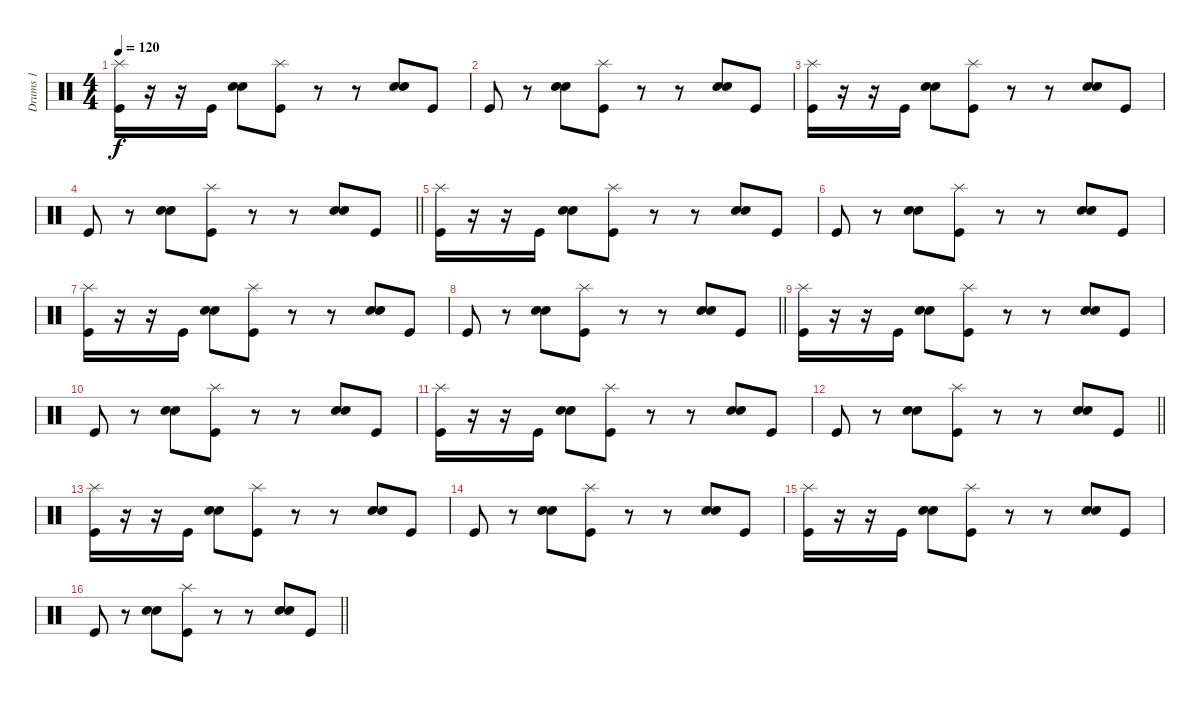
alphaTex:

\track ("Drums 1" "Drums 1") {instrument percussion}
\staff {score}
\articulation defaults
\ts (4 4)
\tempo 120
\clef neutral
\ks c
("Splash (hit)" "Kick (hit)").16{dy f} r.16 r.16 "Kick (hit)".16 ("Hand Clap (hit)" "Electric Snare (hit)").8 ("Splash (hit)" "Kick (hit)").8 r.8 r.8 ("Hand Clap (hit)" "Electric Snare (hit)").8 "Kick (hit)".8 |
"Kick (hit)".8 r.8 ("Hand Clap (hit)" "Electric Snare (hit)").8 ("Splash (hit)" "Kick (hit)").8 r.8 r.8 ("Hand Clap (hit)" "Electric Snare (hit)").8 "Kick (hit)".8 |
("Splash (hit)" "Kick (hit)").16 r.16 r.16 "Kick (hit)".16 ("Hand Clap (hit)" "Electric Snare (hit)").8 ("Splash (hit)" "Kick (hit)").8 r.8 r.8 ("Hand Clap (hit)" "Electric Snare (hit)").8 "Kick (hit)".8 |
\barLineRight lightlight "Kick (hit)".8
r.8 ("Hand Clap (hit)" "Electric Snare (hit)").8 ("Splash (hit)" "Kick (hit)").8 r.8 r.8 ("Hand Clap (hit)" "Electric Snare (hit)").8 "Kick (hit)".8 |
("Splash (hit)" "Kick (hit)").16 r.16 r.16 "Kick (hit)".16 ("Hand Clap (hit)" "Electric Snare (hit)").8 ("Splash (hit)" "Kick (hit)").8 r.8 r.8 ("Hand Clap (hit)" "Electric Snare (hit)").8 "Kick (hit)".8 |
"Kick (hit)".8 r.8 ("Hand Clap (hit)" "Electric Snare (hit)").8 ("Splash (hit)" "Kick (hit)").8 r.8 r.8 ("Hand Clap (hit)" "Electric Snare (hit)").8 "Kick (hit)".8 |
("Splash (hit)" "Kick (hit)").16 r.16 r.16 "Kick (hit)".16 ("Hand Clap (hit)" "Electric Snare (hit)").8 ("Splash (hit)" "Kick (hit)").8 r.8 r.8 ("Hand Clap (hit)" "Electric Snare (hit)").8 "Kick (hit)".8 |
\barLineRight lightlight "Kick (hit)".8
r.8 ("Hand Clap (hit)" "Electric Snare (hit)").8 ("Splash (hit)" "Kick (hit)").8 r.8 r.8 ("Hand Clap (hit)" "Electric Snare (hit)").8 "Kick (hit)".8 |
("Splash (hit)" "Kick (hit)").16 r.16 r.16 "Kick (hit)".16 ("Hand Clap (hit)" "Electric Snare (hit)").8 ("Splash (hit)" "Kick (hit)").8 r.8 r.8 ("Hand Clap (hit)" "Electric Snare (hit)").8 "Kick (hit)".8 |
"Kick (hit)".8 r.8 ("Hand Clap (hit)" "Electric Snare (hit)").8 ("Splash (hit)" "Kick (hit)").8 r.8 r.8 ("Hand Clap (hit)" "Electric Snare (hit)").8 "Kick (hit)".8 |
("Splash (hit)" "Kick (hit)").16 r.16 r.16 "Kick (hit)".16 ("Hand Clap (hit)" "Electric Snare (hit)").8 ("Splash (hit)" "Kick (hit)").8 r.8 r.8 ("Hand Clap (hit)" "Electric Snare (hit)").8 "Kick (hit)".8 |
\barLineRight lightlight "Kick (hit)".8
r.8 ("Hand Clap (hit)" "Electric Snare (hit)").8 ("Splash (hit)" "Kick (hit)").8 r.8 r.8 ("Hand Clap (hit)" "Electric Snare (hit)").8 "Kick (hit)".8 |
("Splash (hit)" "Kick (hit)").16 r.16 r.16 "Kick (hit)".16 ("Hand Clap (hit)" "Electric Snare (hit)").8 ("Splash (hit)" "Kick (hit)").8 r.8 r.8 ("Hand Clap (hit)" "Electric Snare (hit)").8 "Kick (hit)".8 |
"Kick (hit)".8 r.8 ("Hand Clap (hit)" "Electric Snare (hit)").8 ("Splash (hit)" "Kick (hit)").8 r.8 r.8 ("Hand Clap (hit)" "Electric Snare (hit)").8 "Kick (hit)".8 |
("Splash (hit)" "Kick (hit)").16 r.16 r.16 "Kick (hit)".16 ("Hand Clap (hit)" "Electric Snare (hit)").8 ("Splash (hit)" "Kick (hit)").8 r.8 r.8 ("Hand Clap (hit)" "Electric Snare (hit)").8 "Kick (hit)".8 |
\barLineRight lightlight "Kick (hit)".8
r.8 ("Hand Clap (hit)" "Electric Snare (hit)").8 ("Splash (hit)" "Kick (hit)").8 r.8 r.8 ("Hand Clap (hit)" "Electric Snare (hit)").8 "Kick (hit)".8
